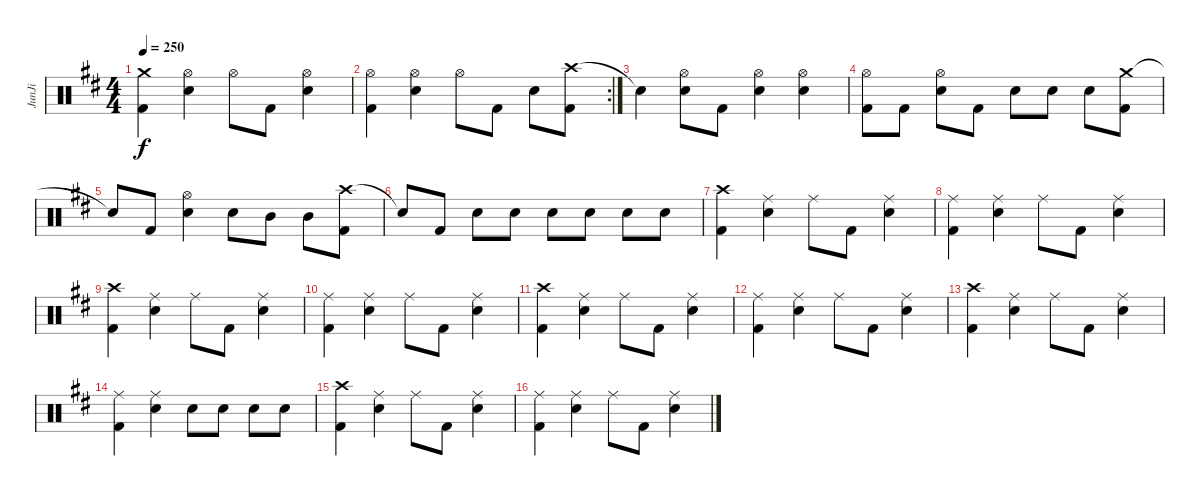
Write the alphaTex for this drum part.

\track ("JunJi" "JunJi") {instrument percussion}
\staff {score}
\articulation defaults
\ts (4 4)
\tempo 250
\clef neutral
\ks d
("Crash medium (hit)" "Kick (hit) 2").4{dy f} ("Hi-Hat (open)" "Snare (hit) 2").4 "Hi-Hat (open)".8 "Kick (hit) 2".8 ("Hi-Hat (open)" "Snare (hit) 2").4 |
\rc 2
("Hi-Hat (open)" "Kick (hit) 2").4 ("Hi-Hat (open)" "Snare (hit) 2").4 "Hi-Hat (open)".8 "Kick (hit) 2".8 "Snare (hit) 2".8 ("Crash high (hit)" "Kick (hit) 2").8 |
"Snare (hit)"{t}.4 ("Hi-Hat (open)" "Snare (hit) 2").8 "Kick (hit) 2".8 ("Hi-Hat (open)" "Snare (hit) 2").4 ("Hi-Hat (open)" "Snare (hit) 2").4 |
("Hi-Hat (open)" "Kick (hit) 2").8 "Kick (hit) 2".8 ("Hi-Hat (open)" "Snare (hit) 2").8 "Kick (hit) 2".8 "Snare (hit) 2".8 "Snare (hit) 2".8 "Snare (hit) 2".8 ("Crash medium (hit)" "Kick (hit) 2").8 |
"Snare (hit)"{t}.8 "Kick (hit) 2".8 ("Hi-Hat (open)" "Snare (hit) 2").4 "Snare (hit) 2".8 "Mid Tom (hit)".8 "Mid Tom (hit)".8 ("Crash high (hit)" "Kick (hit) 2").8 |
"Snare (hit)"{t}.8 "Kick (hit) 2".8 "Snare (hit) 2".8 "Snare (hit) 2".8 "Snare (hit) 2".8 "Snare (hit) 2".8 "Snare (hit) 2".8 "Snare (hit) 2".8 |
("Crash high (hit)" "Kick (hit) 2").4 ("Ride (middle)" "Snare (hit) 2").4 "Ride (middle)".8 "Kick (hit) 2".8 ("Ride (middle)" "Snare (hit) 2").4 |
("Ride (middle)" "Kick (hit) 2").4 ("Ride (middle)" "Snare (hit) 2").4 "Ride (middle)".8 "Kick (hit) 2".8 ("Ride (middle)" "Snare (hit) 2").4 |
("Crash high (hit)" "Kick (hit) 2").4 ("Ride (middle)" "Snare (hit) 2").4 "Ride (middle)".8 "Kick (hit) 2".8 ("Ride (middle)" "Snare (hit) 2").4 |
("Ride (middle)" "Kick (hit) 2").4 ("Ride (middle)" "Snare (hit) 2").4 "Ride (middle)".8 "Kick (hit) 2".8 ("Ride (middle)" "Snare (hit) 2").4 |
("Crash high (hit)" "Kick (hit) 2").4 ("Ride (middle)" "Snare (hit) 2").4 "Ride (middle)".8 "Kick (hit) 2".8 ("Ride (middle)" "Snare (hit) 2").4 |
("Ride (middle)" "Kick (hit) 2").4 ("Ride (middle)" "Snare (hit) 2").4 "Ride (middle)".8 "Kick (hit) 2".8 ("Ride (middle)" "Snare (hit) 2").4 |
("Crash high (hit)" "Kick (hit) 2").4 ("Ride (middle)" "Snare (hit) 2").4 "Ride (middle)".8 "Kick (hit) 2".8 ("Ride (middle)" "Snare (hit) 2").4 |
("Ride (middle)" "Kick (hit) 2").4 ("Ride (middle)" "Snare (hit) 2").4 "Snare (hit) 2".8 "Snare (hit) 2".8 "Snare (hit) 2".8 "Snare (hit) 2".8 |
("Crash high (hit)" "Kick (hit) 2").4 ("Ride (middle)" "Snare (hit) 2").4 "Ride (middle)".8 "Kick (hit) 2".8 ("Ride (middle)" "Snare (hit) 2").4 |
("Ride (middle)" "Kick (hit) 2").4 ("Ride (middle)" "Snare (hit) 2").4 "Ride (middle)".8 "Kick (hit) 2".8 ("Ride (middle)" "Snare (hit) 2").4
